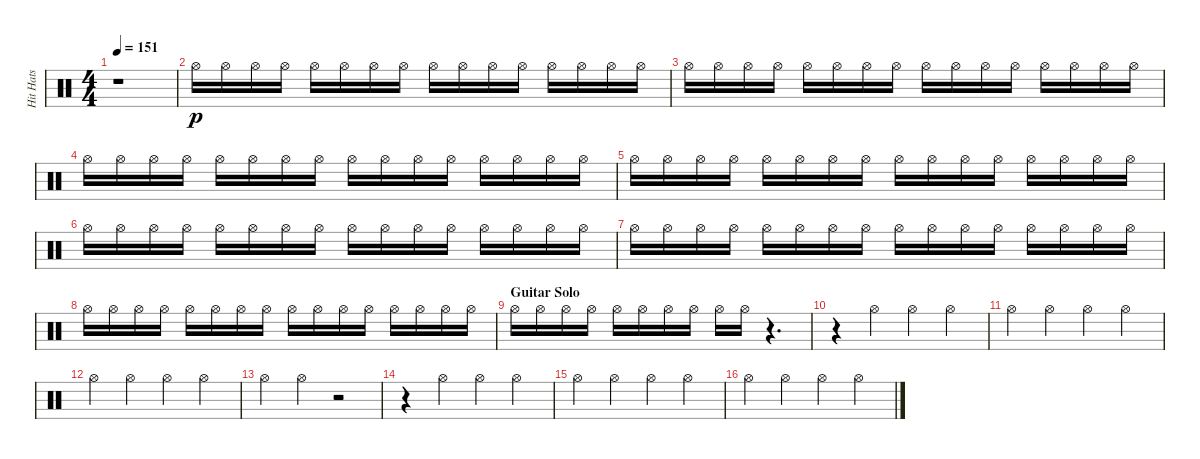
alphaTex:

\track ("Hit Hats" "Hit Hats") {instrument percussion}
\staff {score}
\articulation defaults
\ts (4 4)
\tempo 151
\clef neutral
\ks c
r.1{dy p} |
"Hi-Hat (open)".16{volume 11} "Hi-Hat (open)".16 "Hi-Hat (open)".16 "Hi-Hat (open)".16 "Hi-Hat (open)".16 "Hi-Hat (open)".16 "Hi-Hat (open)".16 "Hi-Hat (open)".16 "Hi-Hat (open)".16 "Hi-Hat (open)".16 "Hi-Hat (open)".16 "Hi-Hat (open)".16 "Hi-Hat (open)".16 "Hi-Hat (open)".16 "Hi-Hat (open)".16 "Hi-Hat (open)".16 |
"Hi-Hat (open)".16 "Hi-Hat (open)".16 "Hi-Hat (open)".16 "Hi-Hat (open)".16 "Hi-Hat (open)".16 "Hi-Hat (open)".16 "Hi-Hat (open)".16 "Hi-Hat (open)".16 "Hi-Hat (open)".16 "Hi-Hat (open)".16 "Hi-Hat (open)".16 "Hi-Hat (open)".16 "Hi-Hat (open)".16 "Hi-Hat (open)".16 "Hi-Hat (open)".16 "Hi-Hat (open)".16 |
"Hi-Hat (open)".16 "Hi-Hat (open)".16 "Hi-Hat (open)".16 "Hi-Hat (open)".16 "Hi-Hat (open)".16 "Hi-Hat (open)".16 "Hi-Hat (open)".16 "Hi-Hat (open)".16 "Hi-Hat (open)".16 "Hi-Hat (open)".16 "Hi-Hat (open)".16 "Hi-Hat (open)".16 "Hi-Hat (open)".16 "Hi-Hat (open)".16 "Hi-Hat (open)".16 "Hi-Hat (open)".16 |
"Hi-Hat (open)".16 "Hi-Hat (open)".16 "Hi-Hat (open)".16 "Hi-Hat (open)".16 "Hi-Hat (open)".16 "Hi-Hat (open)".16 "Hi-Hat (open)".16 "Hi-Hat (open)".16 "Hi-Hat (open)".16 "Hi-Hat (open)".16 "Hi-Hat (open)".16 "Hi-Hat (open)".16 "Hi-Hat (open)".16 "Hi-Hat (open)".16 "Hi-Hat (open)".16 "Hi-Hat (open)".16 |
"Hi-Hat (open)".16 "Hi-Hat (open)".16 "Hi-Hat (open)".16 "Hi-Hat (open)".16 "Hi-Hat (open)".16 "Hi-Hat (open)".16 "Hi-Hat (open)".16 "Hi-Hat (open)".16 "Hi-Hat (open)".16 "Hi-Hat (open)".16 "Hi-Hat (open)".16 "Hi-Hat (open)".16 "Hi-Hat (open)".16 "Hi-Hat (open)".16 "Hi-Hat (open)".16 "Hi-Hat (open)".16 |
"Hi-Hat (open)".16 "Hi-Hat (open)".16 "Hi-Hat (open)".16 "Hi-Hat (open)".16 "Hi-Hat (open)".16 "Hi-Hat (open)".16 "Hi-Hat (open)".16 "Hi-Hat (open)".16 "Hi-Hat (open)".16 "Hi-Hat (open)".16 "Hi-Hat (open)".16 "Hi-Hat (open)".16 "Hi-Hat (open)".16 "Hi-Hat (open)".16 "Hi-Hat (open)".16 "Hi-Hat (open)".16 |
"Hi-Hat (open)".16 "Hi-Hat (open)".16 "Hi-Hat (open)".16 "Hi-Hat (open)".16 "Hi-Hat (open)".16 "Hi-Hat (open)".16 "Hi-Hat (open)".16 "Hi-Hat (open)".16 "Hi-Hat (open)".16 "Hi-Hat (open)".16 "Hi-Hat (open)".16 "Hi-Hat (open)".16 "Hi-Hat (open)".16 "Hi-Hat (open)".16 "Hi-Hat (open)".16 "Hi-Hat (open)".16 |
\section ("" "Guitar Solo")
"Hi-Hat (open)".16 "Hi-Hat (open)".16 "Hi-Hat (open)".16 "Hi-Hat (open)".16 "Hi-Hat (open)".16 "Hi-Hat (open)".16 "Hi-Hat (open)".16 "Hi-Hat (open)".16 "Hi-Hat (open)".16 "Hi-Hat (open)".16 r.4{d} |
r.4 "Hi-Hat (open)".4{volume 14} "Hi-Hat (open)".4 "Hi-Hat (open)".4 |
"Hi-Hat (open)".4 "Hi-Hat (open)".4 "Hi-Hat (open)".4 "Hi-Hat (open)".4 |
"Hi-Hat (open)".4 "Hi-Hat (open)".4 "Hi-Hat (open)".4 "Hi-Hat (open)".4 |
"Hi-Hat (open)".4 "Hi-Hat (open)".4 r.2 |
r.4 "Hi-Hat (open)".4 "Hi-Hat (open)".4 "Hi-Hat (open)".4 |
"Hi-Hat (open)".4 "Hi-Hat (open)".4 "Hi-Hat (open)".4 "Hi-Hat (open)".4 |
"Hi-Hat (open)".4 "Hi-Hat (open)".4 "Hi-Hat (open)".4 "Hi-Hat (open)".4
